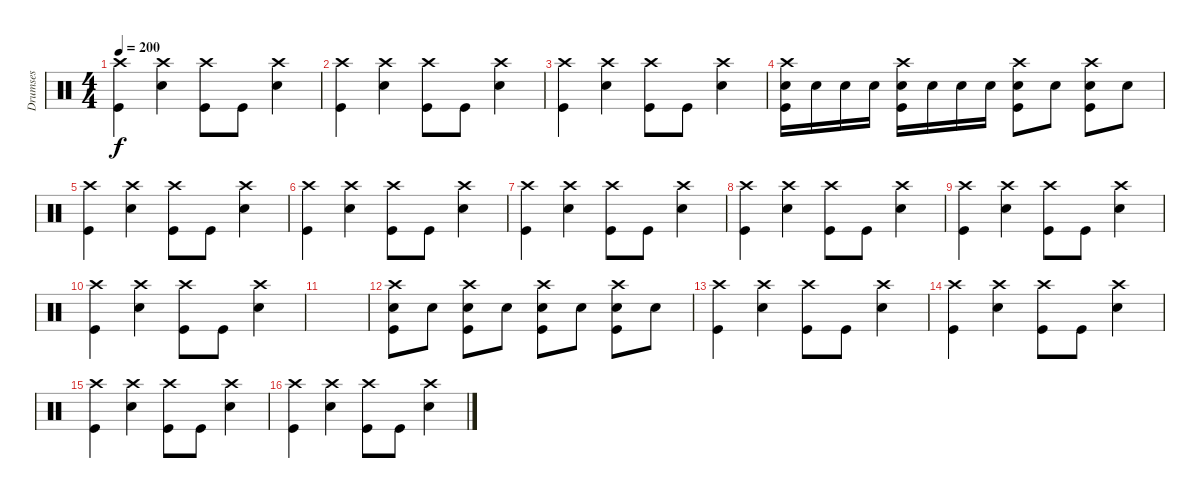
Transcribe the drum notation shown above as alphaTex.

\track ("Drumses" "Drumses") {instrument percussion}
\staff {score}
\articulation defaults
\ts (4 4)
\tempo 200
\clef neutral
\ks c
("Crash high (hit)" "Kick (hit)").4{dy f} ("Crash high (hit)" "Snare (hit) 2").4 ("Crash high (hit)" "Kick (hit)").8 "Kick (hit)".8 ("Crash high (hit)" "Snare (hit) 2").4 |
("Crash high (hit)" "Kick (hit)").4 ("Crash high (hit)" "Snare (hit) 2").4 ("Crash high (hit)" "Kick (hit)").8 "Kick (hit)".8 ("Crash high (hit)" "Snare (hit) 2").4 |
("Crash high (hit)" "Kick (hit)").4 ("Crash high (hit)" "Snare (hit) 2").4 ("Crash high (hit)" "Kick (hit)").8 "Kick (hit)".8 ("Crash high (hit)" "Snare (hit) 2").4 |
("Crash high (hit)" "Snare (hit) 2" "Kick (hit)").16 "Snare (hit) 2".16 "Snare (hit) 2".16 "Snare (hit) 2".16 ("Crash high (hit)" "Snare (hit) 2" "Kick (hit)").16 "Snare (hit) 2".16 "Snare (hit) 2".16 "Snare (hit) 2".16 ("Crash high (hit)" "Snare (hit) 2" "Kick (hit)").8 "Snare (hit) 2".8 ("Crash high (hit)" "Snare (hit) 2" "Kick (hit)").8 "Snare (hit) 2".8 |
("Crash high (hit)" "Kick (hit)").4 ("Crash high (hit)" "Snare (hit) 2").4 ("Crash high (hit)" "Kick (hit)").8 "Kick (hit)".8 ("Crash high (hit)" "Snare (hit) 2").4 |
("Crash high (hit)" "Kick (hit)").4 ("Crash high (hit)" "Snare (hit) 2").4 ("Crash high (hit)" "Kick (hit)").8 "Kick (hit)".8 ("Crash high (hit)" "Snare (hit) 2").4 |
("Crash high (hit)" "Kick (hit)").4 ("Crash high (hit)" "Snare (hit) 2").4 ("Crash high (hit)" "Kick (hit)").8 "Kick (hit)".8 ("Crash high (hit)" "Snare (hit) 2").4 |
("Crash high (hit)" "Kick (hit)").4 ("Crash high (hit)" "Snare (hit) 2").4 ("Crash high (hit)" "Kick (hit)").8 "Kick (hit)".8 ("Crash high (hit)" "Snare (hit) 2").4 |
("Crash high (hit)" "Kick (hit)").4 ("Crash high (hit)" "Snare (hit) 2").4 ("Crash high (hit)" "Kick (hit)").8 "Kick (hit)".8 ("Crash high (hit)" "Snare (hit) 2").4 |
("Crash high (hit)" "Kick (hit)").4 ("Crash high (hit)" "Snare (hit) 2").4 ("Crash high (hit)" "Kick (hit)").8 "Kick (hit)".8 ("Crash high (hit)" "Snare (hit) 2").4 |
|
("Crash high (hit)" "Snare (hit) 2" "Kick (hit)").8 "Snare (hit) 2".8 ("Crash high (hit)" "Snare (hit) 2" "Kick (hit)").8 "Snare (hit) 2".8 ("Crash high (hit)" "Snare (hit) 2" "Kick (hit)").8 "Snare (hit) 2".8 ("Crash high (hit)" "Snare (hit) 2" "Kick (hit)").8 "Snare (hit) 2".8 |
("Crash high (hit)" "Kick (hit)").4 ("Crash high (hit)" "Snare (hit) 2").4 ("Crash high (hit)" "Kick (hit)").8 "Kick (hit)".8 ("Crash high (hit)" "Snare (hit) 2").4 |
("Crash high (hit)" "Kick (hit)").4 ("Crash high (hit)" "Snare (hit) 2").4 ("Crash high (hit)" "Kick (hit)").8 "Kick (hit)".8 ("Crash high (hit)" "Snare (hit) 2").4 |
("Crash high (hit)" "Kick (hit)").4 ("Crash high (hit)" "Snare (hit) 2").4 ("Crash high (hit)" "Kick (hit)").8 "Kick (hit)".8 ("Crash high (hit)" "Snare (hit) 2").4 |
("Crash high (hit)" "Kick (hit)").4 ("Crash high (hit)" "Snare (hit) 2").4 ("Crash high (hit)" "Kick (hit)").8 "Kick (hit)".8 ("Crash high (hit)" "Snare (hit) 2").4
